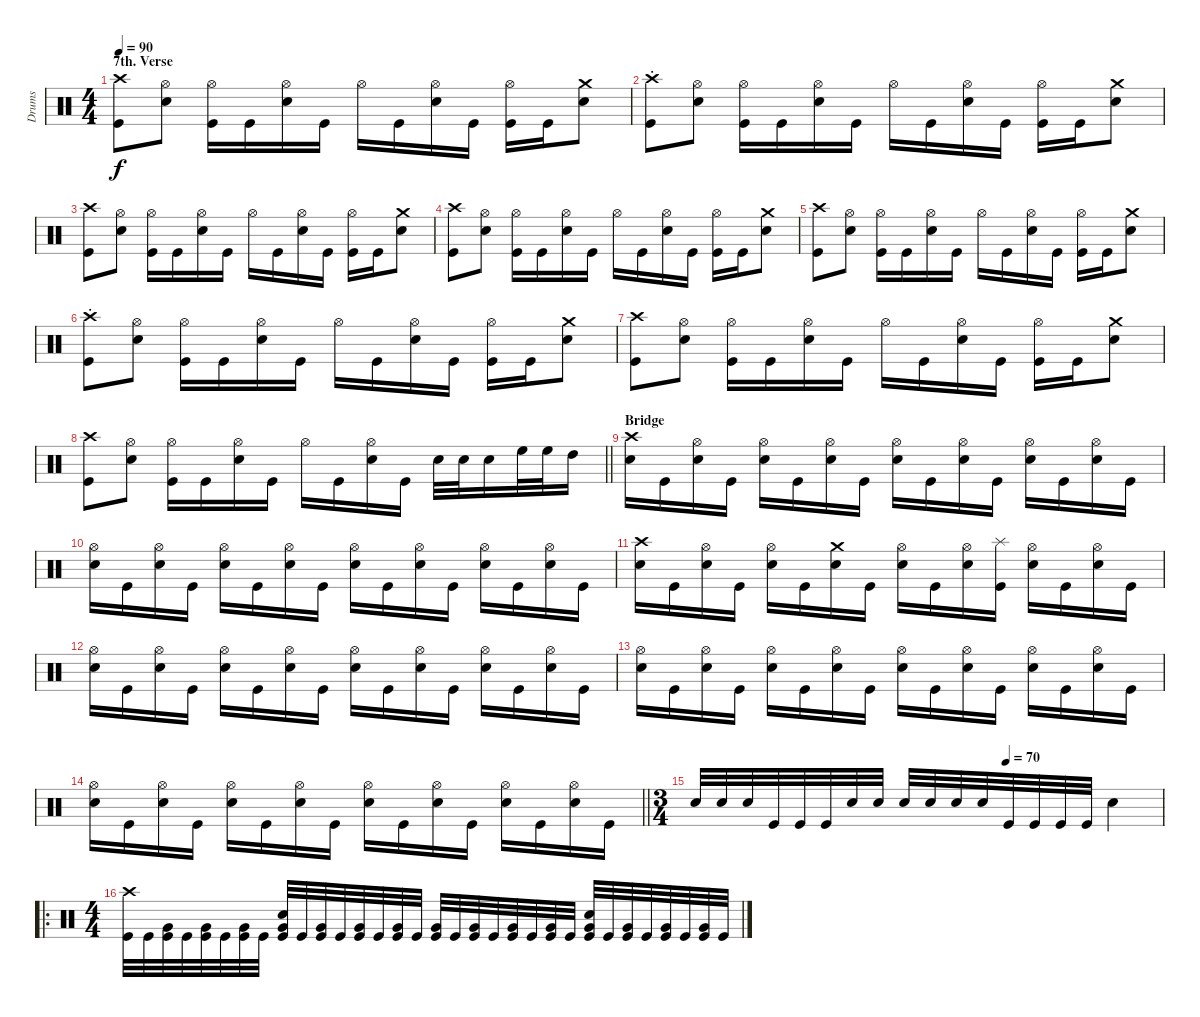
\track ("Drums" "Drums") {instrument percussion}
\staff {score}
\articulation defaults
\ts (4 4)
\section ("" "7th. Verse")
\tempo 90
\clef neutral
\ks c
("Crash high (hit)" "Kick (hit)").8{dy f} ("Hi-Hat (open)" "Electric Snare (hit)").8 ("Hi-Hat (open)" "Kick (hit)").16 "Kick (hit)".16 ("Hi-Hat (open)" "Electric Snare (hit)").16 "Kick (hit)".16 "Hi-Hat (open)".16 "Kick (hit)".16 ("Hi-Hat (open)" "Electric Snare (hit)").16 "Kick (hit)".16 ("Hi-Hat (open)" "Kick (hit)").16 "Kick (hit)".16 ("Crash medium (hit)" "Electric Snare (hit)").8 |
("Crash high (hit)" "Kick (hit)"{st}).8 ("Hi-Hat (open)" "Electric Snare (hit)").8 ("Hi-Hat (open)" "Kick (hit)").16 "Kick (hit)".16 ("Hi-Hat (open)" "Electric Snare (hit)").16 "Kick (hit)".16 "Hi-Hat (open)".16 "Kick (hit)".16 ("Hi-Hat (open)" "Electric Snare (hit)").16 "Kick (hit)".16 ("Hi-Hat (open)" "Kick (hit)").16 "Kick (hit)".16 ("Crash medium (hit)" "Electric Snare (hit)").8 |
("Crash high (hit)" "Kick (hit)").8 ("Hi-Hat (open)" "Electric Snare (hit)").8 ("Hi-Hat (open)" "Kick (hit)").16 "Kick (hit)".16 ("Hi-Hat (open)" "Electric Snare (hit)").16 "Kick (hit)".16 "Hi-Hat (open)".16 "Kick (hit)".16 ("Hi-Hat (open)" "Electric Snare (hit)").16 "Kick (hit)".16 ("Hi-Hat (open)" "Kick (hit)").16 "Kick (hit)".16 ("Crash medium (hit)" "Electric Snare (hit)").8 |
("Crash high (hit)" "Kick (hit)").8 ("Hi-Hat (open)" "Electric Snare (hit)").8 ("Hi-Hat (open)" "Kick (hit)").16 "Kick (hit)".16 ("Hi-Hat (open)" "Electric Snare (hit)").16 "Kick (hit)".16 "Hi-Hat (open)".16 "Kick (hit)".16 ("Hi-Hat (open)" "Electric Snare (hit)").16 "Kick (hit)".16 ("Hi-Hat (open)" "Kick (hit)").16 "Kick (hit)".16 ("Crash medium (hit)" "Electric Snare (hit)").8 |
("Crash high (hit)" "Kick (hit)").8 ("Hi-Hat (open)" "Electric Snare (hit)").8 ("Hi-Hat (open)" "Kick (hit)").16 "Kick (hit)".16 ("Hi-Hat (open)" "Electric Snare (hit)").16 "Kick (hit)".16 "Hi-Hat (open)".16 "Kick (hit)".16 ("Hi-Hat (open)" "Electric Snare (hit)").16 "Kick (hit)".16 ("Hi-Hat (open)" "Kick (hit)").16 "Kick (hit)".16 ("Crash medium (hit)" "Electric Snare (hit)").8 |
("Crash high (hit)" "Kick (hit)"{st}).8 ("Hi-Hat (open)" "Electric Snare (hit)").8 ("Hi-Hat (open)" "Kick (hit)").16 "Kick (hit)".16 ("Hi-Hat (open)" "Electric Snare (hit)").16 "Kick (hit)".16 "Hi-Hat (open)".16 "Kick (hit)".16 ("Hi-Hat (open)" "Electric Snare (hit)").16 "Kick (hit)".16 ("Hi-Hat (open)" "Kick (hit)").16 "Kick (hit)".16 ("Crash medium (hit)" "Electric Snare (hit)").8 |
("Crash high (hit)" "Kick (hit)").8 ("Hi-Hat (open)" "Electric Snare (hit)").8 ("Hi-Hat (open)" "Kick (hit)").16 "Kick (hit)".16 ("Hi-Hat (open)" "Electric Snare (hit)").16 "Kick (hit)".16 "Hi-Hat (open)".16 "Kick (hit)".16 ("Hi-Hat (open)" "Electric Snare (hit)").16 "Kick (hit)".16 ("Hi-Hat (open)" "Kick (hit)").16 "Kick (hit)".16 ("Crash medium (hit)" "Electric Snare (hit)").8 |
\barLineRight lightlight
("Crash high (hit)" "Kick (hit)").8 ("Hi-Hat (open)" "Electric Snare (hit)").8 ("Hi-Hat (open)" "Kick (hit)").16 "Kick (hit)".16 ("Hi-Hat (open)" "Electric Snare (hit)").16 "Kick (hit)".16 "Hi-Hat (open)".16 "Kick (hit)".16 ("Hi-Hat (open)" "Electric Snare (hit)").16 "Kick (hit)".16 "Electric Snare (hit)".32 "Electric Snare (hit)".32 "Electric Snare (hit)".16 "High Floor Tom (hit)".32 "High Floor Tom (hit)".32 "High Tom (hit)".16 |
\section ("" "Bridge")
("Crash high (hit)" "Electric Snare (hit)").16 "Kick (hit)".16 ("Hi-Hat (open)" "Electric Snare (hit)").16 "Kick (hit)".16 ("Hi-Hat (open)" "Electric Snare (hit)").16 "Kick (hit)".16 ("Hi-Hat (open)" "Electric Snare (hit)").16 "Kick (hit)".16 ("Hi-Hat (open)" "Electric Snare (hit)").16 "Kick (hit)".16 ("Hi-Hat (open)" "Electric Snare (hit)").16 "Kick (hit)".16 ("Hi-Hat (open)" "Electric Snare (hit)").16 "Kick (hit)".16 ("Hi-Hat (open)" "Electric Snare (hit)").16 "Kick (hit)".16 |
("Hi-Hat (open)" "Electric Snare (hit)").16 "Kick (hit)".16 ("Hi-Hat (open)" "Electric Snare (hit)").16 "Kick (hit)".16 ("Hi-Hat (open)" "Electric Snare (hit)").16 "Kick (hit)".16 ("Hi-Hat (open)" "Electric Snare (hit)").16 "Kick (hit)".16 ("Hi-Hat (open)" "Electric Snare (hit)").16 "Kick (hit)".16 ("Hi-Hat (open)" "Electric Snare (hit)").16 "Kick (hit)".16 ("Hi-Hat (open)" "Electric Snare (hit)").16 "Kick (hit)".16 ("Hi-Hat (open)" "Electric Snare (hit)").16 "Kick (hit)".16 |
("Crash high (hit)" "Electric Snare (hit)").16 "Kick (hit)".16 ("Hi-Hat (open)" "Electric Snare (hit)").16 "Kick (hit)".16 ("Hi-Hat (open)" "Electric Snare (hit)").16 "Kick (hit)".16 ("Crash medium (hit)" "Electric Snare (hit)").16 "Kick (hit)".16 ("Hi-Hat (open)" "Electric Snare (hit)").16 "Kick (hit)".16 ("Hi-Hat (open)" "Electric Snare (hit)").16 ("Splash (hit)" "Kick (hit)").16 ("Hi-Hat (open)" "Electric Snare (hit)").16 "Kick (hit)".16 ("Hi-Hat (open)" "Electric Snare (hit)").16 "Kick (hit)".16 |
("Hi-Hat (open)" "Electric Snare (hit)").16 "Kick (hit)".16 ("Hi-Hat (open)" "Electric Snare (hit)").16 "Kick (hit)".16 ("Hi-Hat (open)" "Electric Snare (hit)").16 "Kick (hit)".16 ("Hi-Hat (open)" "Electric Snare (hit)").16 "Kick (hit)".16 ("Hi-Hat (open)" "Electric Snare (hit)").16 "Kick (hit)".16 ("Hi-Hat (open)" "Electric Snare (hit)").16 "Kick (hit)".16 ("Hi-Hat (open)" "Electric Snare (hit)").16 "Kick (hit)".16 ("Hi-Hat (open)" "Electric Snare (hit)").16 "Kick (hit)".16 |
("Hi-Hat (open)" "Electric Snare (hit)").16 "Kick (hit)".16 ("Hi-Hat (open)" "Electric Snare (hit)").16 "Kick (hit)".16 ("Hi-Hat (open)" "Electric Snare (hit)").16 "Kick (hit)".16 ("Hi-Hat (open)" "Electric Snare (hit)").16 "Kick (hit)".16 ("Hi-Hat (open)" "Electric Snare (hit)").16 "Kick (hit)".16 ("Hi-Hat (open)" "Electric Snare (hit)").16 "Kick (hit)".16 ("Hi-Hat (open)" "Electric Snare (hit)").16 "Kick (hit)".16 ("Hi-Hat (open)" "Electric Snare (hit)").16 "Kick (hit)".16 |
\barLineRight lightlight
("Hi-Hat (open)" "Electric Snare (hit)").16 "Kick (hit)".16 ("Hi-Hat (open)" "Electric Snare (hit)").16 "Kick (hit)".16 ("Hi-Hat (open)" "Electric Snare (hit)").16 "Kick (hit)".16 ("Hi-Hat (open)" "Electric Snare (hit)").16 "Kick (hit)".16 ("Hi-Hat (open)" "Electric Snare (hit)").16 "Kick (hit)".16 ("Hi-Hat (open)" "Electric Snare (hit)").16 "Kick (hit)".16 ("Hi-Hat (open)" "Electric Snare (hit)").16 "Kick (hit)".16 ("Hi-Hat (open)" "Electric Snare (hit)").16 "Kick (hit)".16 |
\ts (3 4)
\tempo (70 0.6666666666666666)
"Electric Snare (hit)".32 "Electric Snare (hit)".32 "Electric Snare (hit)".32 "Kick (hit)".32 "Kick (hit)".32 "Kick (hit)".32 "Electric Snare (hit)".32 "Electric Snare (hit)".32 "Electric Snare (hit)".32 "Electric Snare (hit)".32 "Electric Snare (hit)".32 "Electric Snare (hit)".32 "Kick (hit)".32 "Kick (hit)".32 "Kick (hit)".32 "Kick (hit)".32 "Electric Snare (hit)".4 |
\ro
\ts (4 4)
("Crash high (hit)" "Kick (hit)").32 "Kick (hit)".32 ("Very Low Tom (hit)" "Kick (hit)").32 "Kick (hit)".32 ("Very Low Tom (hit)" "Kick (hit)").32 "Kick (hit)".32 ("Very Low Tom (hit)" "Kick (hit)").32 "Kick (hit)".32 ("Very Low Tom (hit)" "Electric Snare (hit)" "Kick (hit)").32 "Kick (hit)".32 ("Very Low Tom (hit)" "Kick (hit)").32 "Kick (hit)".32 ("Very Low Tom (hit)" "Kick (hit)").32 "Kick (hit)".32 ("Very Low Tom (hit)" "Kick (hit)").32 "Kick (hit)".32 ("Very Low Tom (hit)" "Kick (hit)").32 "Kick (hit)".32 ("Very Low Tom (hit)" "Kick (hit)").32 "Kick (hit)".32 ("Very Low Tom (hit)" "Kick (hit)").32 "Kick (hit)".32 ("Very Low Tom (hit)" "Kick (hit)").32 "Kick (hit)".32 ("Very Low Tom (hit)" "Electric Snare (hit)" "Kick (hit)").32 "Kick (hit)".32 ("Very Low Tom (hit)" "Kick (hit)").32 "Kick (hit)".32 ("Very Low Tom (hit)" "Kick (hit)").32 "Kick (hit)".32 ("Very Low Tom (hit)" "Kick (hit)").32 "Kick (hit)".32
